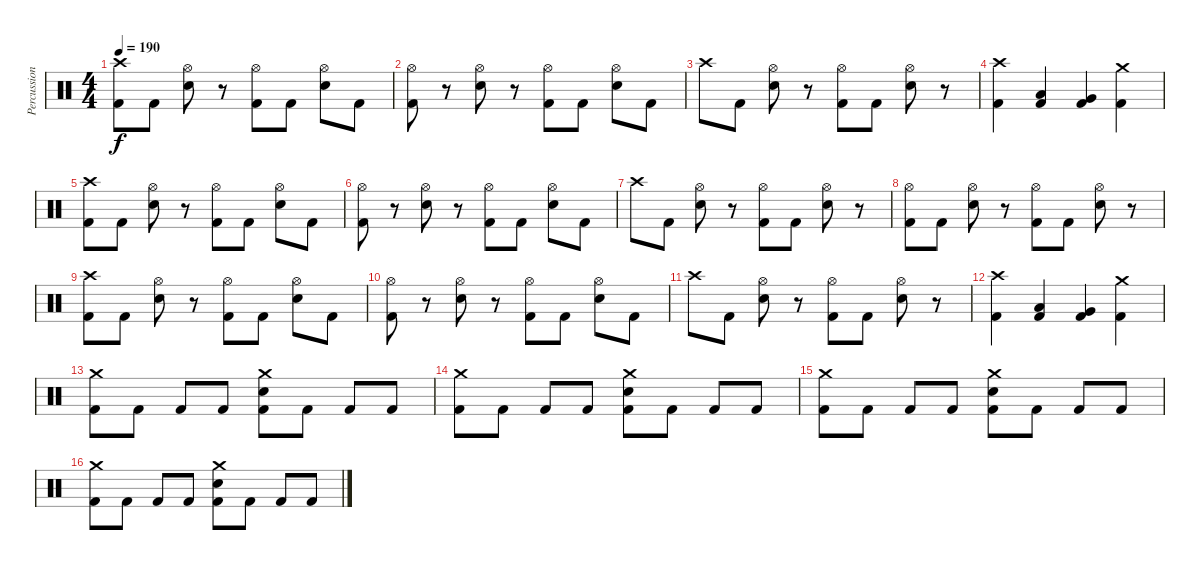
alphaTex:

\track ("Percussion" "Percussion") {instrument percussion}
\staff {score}
\articulation defaults
\ts (4 4)
\tempo 190
\clef neutral
\ks c
("Crash high (hit)" "Kick (hit) 2").8{dy f} "Kick (hit) 2".8 ("Hi-Hat (open)" "Electric Snare (hit)").8 r.8 ("Hi-Hat (open)" "Kick (hit) 2").8 "Kick (hit) 2".8 ("Hi-Hat (open)" "Electric Snare (hit)").8 "Kick (hit) 2".8 |
("Hi-Hat (open)" "Kick (hit) 2").8 r.8 ("Hi-Hat (open)" "Electric Snare (hit)").8 r.8 ("Hi-Hat (open)" "Kick (hit) 2").8 "Kick (hit) 2".8 ("Hi-Hat (open)" "Electric Snare (hit)").8 "Kick (hit) 2".8 |
"Crash high (hit)".8 "Kick (hit) 2".8 ("Hi-Hat (open)" "Electric Snare (hit)").8 r.8 ("Hi-Hat (open)" "Kick (hit) 2").8 "Kick (hit) 2".8 ("Hi-Hat (open)" "Electric Snare (hit)").8 r.8 |
("Crash high (hit)" "Kick (hit) 2").4 ("Low Tom (hit)" "Kick (hit) 2").4 ("Very Low Tom (hit)" "Kick (hit) 2").4 ("Crash medium (hit)" "Kick (hit) 2").4 |
("Crash high (hit)" "Kick (hit) 2").8 "Kick (hit) 2".8 ("Hi-Hat (open)" "Electric Snare (hit)").8 r.8 ("Hi-Hat (open)" "Kick (hit) 2").8 "Kick (hit) 2".8 ("Hi-Hat (open)" "Electric Snare (hit)").8 "Kick (hit) 2".8 |
("Hi-Hat (open)" "Kick (hit) 2").8 r.8 ("Hi-Hat (open)" "Electric Snare (hit)").8 r.8 ("Hi-Hat (open)" "Kick (hit) 2").8 "Kick (hit) 2".8 ("Hi-Hat (open)" "Electric Snare (hit)").8 "Kick (hit) 2".8 |
"Crash high (hit)".8 "Kick (hit) 2".8 ("Hi-Hat (open)" "Electric Snare (hit)").8 r.8 ("Hi-Hat (open)" "Kick (hit) 2").8 "Kick (hit) 2".8 ("Hi-Hat (open)" "Electric Snare (hit)").8 r.8 |
("Hi-Hat (open)" "Kick (hit) 2").8 "Kick (hit) 2".8 ("Hi-Hat (open)" "Electric Snare (hit)").8 r.8 ("Hi-Hat (open)" "Kick (hit) 2").8 "Kick (hit) 2".8 ("Hi-Hat (open)" "Electric Snare (hit)").8 r.8 |
("Crash high (hit)" "Kick (hit) 2").8 "Kick (hit) 2".8 ("Hi-Hat (open)" "Electric Snare (hit)").8 r.8 ("Hi-Hat (open)" "Kick (hit) 2").8 "Kick (hit) 2".8 ("Hi-Hat (open)" "Electric Snare (hit)").8 "Kick (hit) 2".8 |
("Hi-Hat (open)" "Kick (hit) 2").8 r.8 ("Hi-Hat (open)" "Electric Snare (hit)").8 r.8 ("Hi-Hat (open)" "Kick (hit) 2").8 "Kick (hit) 2".8 ("Hi-Hat (open)" "Electric Snare (hit)").8 "Kick (hit) 2".8 |
"Crash high (hit)".8 "Kick (hit) 2".8 ("Hi-Hat (open)" "Electric Snare (hit)").8 r.8 ("Hi-Hat (open)" "Kick (hit) 2").8 "Kick (hit) 2".8 ("Hi-Hat (open)" "Electric Snare (hit)").8 r.8 |
("Crash high (hit)" "Kick (hit) 2").4 ("Low Tom (hit)" "Kick (hit) 2").4 ("Very Low Tom (hit)" "Kick (hit) 2").4 ("Crash medium (hit)" "Kick (hit) 2").4 |
("Crash medium (hit)" "Kick (hit) 2").8 "Kick (hit) 2".8 "Kick (hit) 2".8 "Kick (hit) 2".8 ("Crash medium (hit)" "Electric Snare (hit)" "Kick (hit) 2").8 "Kick (hit) 2".8 "Kick (hit) 2".8 "Kick (hit) 2".8 |
("Crash medium (hit)" "Kick (hit) 2").8 "Kick (hit) 2".8 "Kick (hit) 2".8 "Kick (hit) 2".8 ("Crash medium (hit)" "Electric Snare (hit)" "Kick (hit) 2").8 "Kick (hit) 2".8 "Kick (hit) 2".8 "Kick (hit) 2".8 |
("Crash medium (hit)" "Kick (hit) 2").8 "Kick (hit) 2".8 "Kick (hit) 2".8 "Kick (hit) 2".8 ("Crash medium (hit)" "Electric Snare (hit)" "Kick (hit) 2").8 "Kick (hit) 2".8 "Kick (hit) 2".8 "Kick (hit) 2".8 |
("Crash medium (hit)" "Kick (hit) 2").8 "Kick (hit) 2".8 "Kick (hit) 2".8 "Kick (hit) 2".8 ("Crash medium (hit)" "Electric Snare (hit)" "Kick (hit) 2").8 "Kick (hit) 2".8 "Kick (hit) 2".8 "Kick (hit) 2".8
